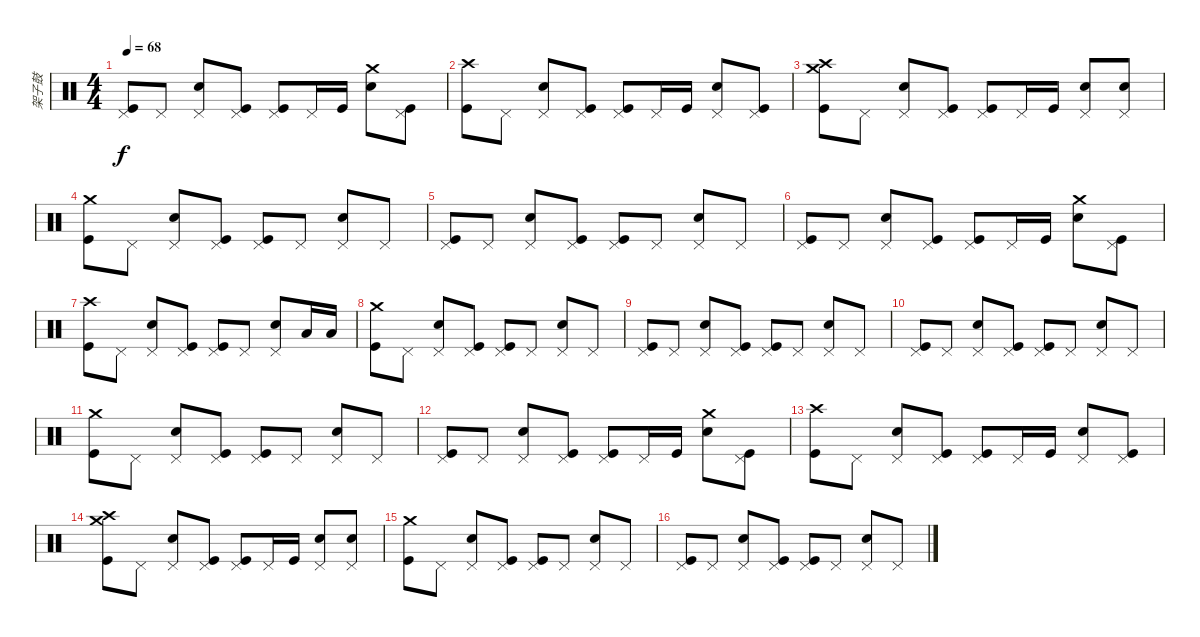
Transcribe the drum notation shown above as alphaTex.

\track ("架子鼓" "架子鼓") {instrument percussion}
\staff {score}
\articulation defaults
\ts (4 4)
\tempo 68
\clef neutral
\ks c
("Pedal Hi-Hat (hit)" "Kick (hit)").8{dy f} "Pedal Hi-Hat (hit)".8 ("Pedal Hi-Hat (hit)" "Snare (hit) 2").8 ("Pedal Hi-Hat (hit)" "Kick (hit)").8 ("Pedal Hi-Hat (hit)" "Kick (hit)").8 "Pedal Hi-Hat (hit)".16 "Kick (hit)".16 ("Crash medium (hit)" "Snare (hit) 2").8 ("Pedal Hi-Hat (hit)" "Kick (hit)").8 |
("Crash high (hit)" "Kick (hit)").8 "Pedal Hi-Hat (hit)".8 ("Pedal Hi-Hat (hit)" "Snare (hit) 2").8 ("Pedal Hi-Hat (hit)" "Kick (hit)").8 ("Pedal Hi-Hat (hit)" "Kick (hit)").8 "Pedal Hi-Hat (hit)".16 "Kick (hit)".16 ("Pedal Hi-Hat (hit)" "Snare (hit) 2").8 ("Pedal Hi-Hat (hit)" "Kick (hit)").8 |
("Crash medium (hit)" "Crash high (hit)" "Kick (hit)").8 "Pedal Hi-Hat (hit)".8 ("Pedal Hi-Hat (hit)" "Snare (hit) 2").8 ("Pedal Hi-Hat (hit)" "Kick (hit)").8 ("Pedal Hi-Hat (hit)" "Kick (hit)").8 "Pedal Hi-Hat (hit)".16 "Kick (hit)".16 ("Pedal Hi-Hat (hit)" "Snare (hit) 2").8 ("Pedal Hi-Hat (hit)" "Snare (hit) 2").8 |
("Crash medium (hit)" "Kick (hit)").8 "Pedal Hi-Hat (hit)".8 ("Pedal Hi-Hat (hit)" "Snare (hit) 2").8 ("Pedal Hi-Hat (hit)" "Kick (hit)").8 ("Pedal Hi-Hat (hit)" "Kick (hit)").8 "Pedal Hi-Hat (hit)".8 ("Pedal Hi-Hat (hit)" "Snare (hit) 2").8 "Pedal Hi-Hat (hit)".8 |
("Pedal Hi-Hat (hit)" "Kick (hit)").8 "Pedal Hi-Hat (hit)".8 ("Pedal Hi-Hat (hit)" "Snare (hit) 2").8 ("Pedal Hi-Hat (hit)" "Kick (hit)").8 ("Pedal Hi-Hat (hit)" "Kick (hit)").8 "Pedal Hi-Hat (hit)".8 ("Pedal Hi-Hat (hit)" "Snare (hit) 2").8 "Pedal Hi-Hat (hit)".8 |
("Pedal Hi-Hat (hit)" "Kick (hit)").8 "Pedal Hi-Hat (hit)".8 ("Pedal Hi-Hat (hit)" "Snare (hit) 2").8 ("Pedal Hi-Hat (hit)" "Kick (hit)").8 ("Pedal Hi-Hat (hit)" "Kick (hit)").8 "Pedal Hi-Hat (hit)".16 "Kick (hit)".16 ("Crash medium (hit)" "Snare (hit) 2").8 ("Pedal Hi-Hat (hit)" "Kick (hit)").8 |
("Crash high (hit)" "Kick (hit)").8 "Pedal Hi-Hat (hit)".8 ("Pedal Hi-Hat (hit)" "Snare (hit) 2").8 ("Pedal Hi-Hat (hit)" "Kick (hit)").8 ("Pedal Hi-Hat (hit)" "Kick (hit)").8 "Pedal Hi-Hat (hit)".8 ("Pedal Hi-Hat (hit)" "Snare (hit) 2").8 "Low Tom (hit)".16 "Low Tom (hit)".16 |
("Crash medium (hit)" "Kick (hit)").8 "Pedal Hi-Hat (hit)".8 ("Pedal Hi-Hat (hit)" "Snare (hit) 2").8 ("Pedal Hi-Hat (hit)" "Kick (hit)").8 ("Pedal Hi-Hat (hit)" "Kick (hit)").8 "Pedal Hi-Hat (hit)".8 ("Pedal Hi-Hat (hit)" "Snare (hit) 2").8 "Pedal Hi-Hat (hit)".8 |
("Pedal Hi-Hat (hit)" "Kick (hit)").8 "Pedal Hi-Hat (hit)".8 ("Pedal Hi-Hat (hit)" "Snare (hit) 2").8 ("Pedal Hi-Hat (hit)" "Kick (hit)").8 ("Pedal Hi-Hat (hit)" "Kick (hit)").8 "Pedal Hi-Hat (hit)".8 ("Pedal Hi-Hat (hit)" "Snare (hit) 2").8 "Pedal Hi-Hat (hit)".8 |
("Pedal Hi-Hat (hit)" "Kick (hit)").8 "Pedal Hi-Hat (hit)".8 ("Pedal Hi-Hat (hit)" "Snare (hit) 2").8 ("Pedal Hi-Hat (hit)" "Kick (hit)").8 ("Pedal Hi-Hat (hit)" "Kick (hit)").8 "Pedal Hi-Hat (hit)".8 ("Pedal Hi-Hat (hit)" "Snare (hit) 2").8 "Pedal Hi-Hat (hit)".8 |
("Crash medium (hit)" "Kick (hit)").8 "Pedal Hi-Hat (hit)".8 ("Pedal Hi-Hat (hit)" "Snare (hit) 2").8 ("Pedal Hi-Hat (hit)" "Kick (hit)").8 ("Pedal Hi-Hat (hit)" "Kick (hit)").8 "Pedal Hi-Hat (hit)".8 ("Pedal Hi-Hat (hit)" "Snare (hit) 2").8 "Pedal Hi-Hat (hit)".8 |
("Pedal Hi-Hat (hit)" "Kick (hit)").8 "Pedal Hi-Hat (hit)".8 ("Pedal Hi-Hat (hit)" "Snare (hit) 2").8 ("Pedal Hi-Hat (hit)" "Kick (hit)").8 ("Pedal Hi-Hat (hit)" "Kick (hit)").8 "Pedal Hi-Hat (hit)".16 "Kick (hit)".16 ("Crash medium (hit)" "Snare (hit) 2").8 ("Pedal Hi-Hat (hit)" "Kick (hit)").8 |
("Crash high (hit)" "Kick (hit)").8 "Pedal Hi-Hat (hit)".8 ("Pedal Hi-Hat (hit)" "Snare (hit) 2").8 ("Pedal Hi-Hat (hit)" "Kick (hit)").8 ("Pedal Hi-Hat (hit)" "Kick (hit)").8 "Pedal Hi-Hat (hit)".16 "Kick (hit)".16 ("Pedal Hi-Hat (hit)" "Snare (hit) 2").8 ("Pedal Hi-Hat (hit)" "Kick (hit)").8 |
("Crash medium (hit)" "Crash high (hit)" "Kick (hit)").8 "Pedal Hi-Hat (hit)".8 ("Pedal Hi-Hat (hit)" "Snare (hit) 2").8 ("Pedal Hi-Hat (hit)" "Kick (hit)").8 ("Pedal Hi-Hat (hit)" "Kick (hit)").8 "Pedal Hi-Hat (hit)".16 "Kick (hit)".16 ("Pedal Hi-Hat (hit)" "Snare (hit) 2").8 ("Pedal Hi-Hat (hit)" "Snare (hit) 2").8 |
("Crash medium (hit)" "Kick (hit)").8 "Pedal Hi-Hat (hit)".8 ("Pedal Hi-Hat (hit)" "Snare (hit) 2").8 ("Pedal Hi-Hat (hit)" "Kick (hit)").8 ("Pedal Hi-Hat (hit)" "Kick (hit)").8 "Pedal Hi-Hat (hit)".8 ("Pedal Hi-Hat (hit)" "Snare (hit) 2").8 "Pedal Hi-Hat (hit)".8 |
("Pedal Hi-Hat (hit)" "Kick (hit)").8 "Pedal Hi-Hat (hit)".8 ("Pedal Hi-Hat (hit)" "Snare (hit) 2").8 ("Pedal Hi-Hat (hit)" "Kick (hit)").8 ("Pedal Hi-Hat (hit)" "Kick (hit)").8 "Pedal Hi-Hat (hit)".8 ("Pedal Hi-Hat (hit)" "Snare (hit) 2").8 "Pedal Hi-Hat (hit)".8
